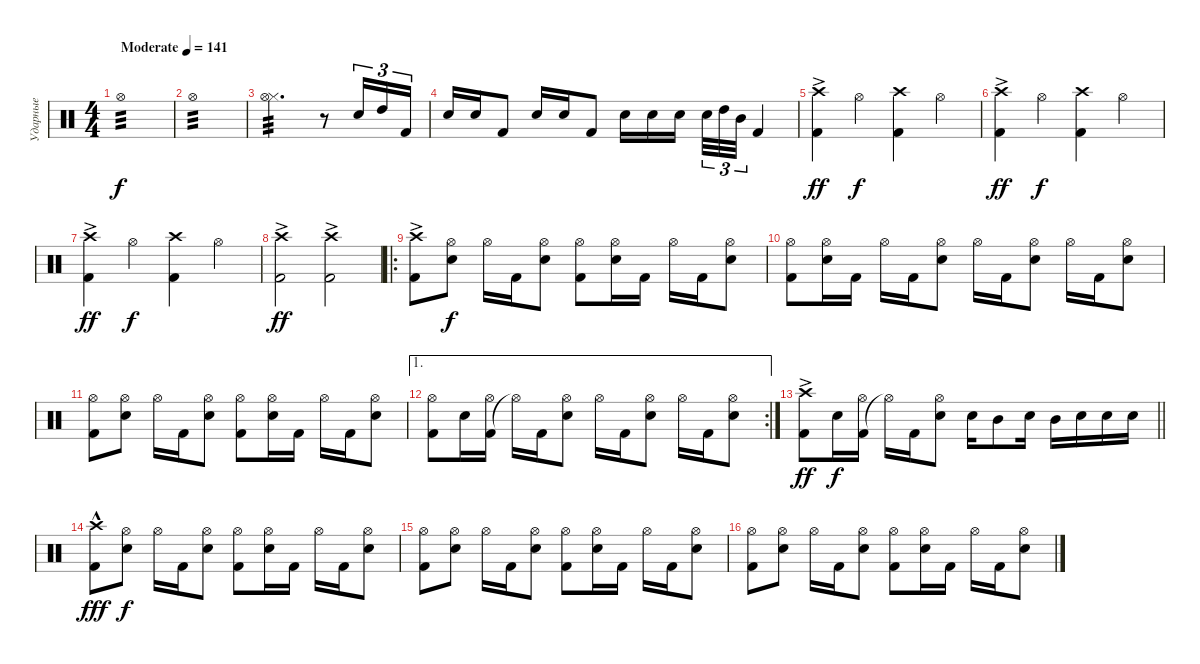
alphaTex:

\track ("Ударные" "Ударные") {instrument percussion}
\staff
\articulation defaults
\ts (4 4)
\tempo (141 "Moderate")
\clef neutral
\ks c "Hi-Hat (open)".1{tp 3 dy f}
|
"Hi-Hat (open)".1{tp 3} |
("Hi-Hat (closed)" "Hi-Hat (open)").2{d tp 3} r.8 "Snare (hit) 2".16{tu (3 2)} "High Tom (hit)".16{tu (3 2)} "Kick (hit) 2".16{tu (3 2)} |
"Snare (hit) 2".16 "Snare (hit) 2".16 "Kick (hit) 2".8 "Snare (hit) 2".16 "Snare (hit) 2".16 "Kick (hit) 2".8 "Snare (hit) 2".16 "Snare (hit) 2".16 "Snare (hit) 2".16{beam splitsecondary} "Snare (hit) 2".32{tu (3 2)} "High Tom (hit)".32{tu (3 2)} "Mid Tom (hit)".32{tu (3 2)} "Kick (hit) 2".4 |
("Kick (hit) 2" "Crash high (hit)"{ac}).4{dy ff} "Hi-Hat (open)".4{dy f} ("Kick (hit) 2" "Crash high (hit)").4 "Hi-Hat (open)".4 |
("Kick (hit) 2" "Crash high (hit)"{ac}).4{dy ff} "Hi-Hat (open)".4{dy f} ("Kick (hit) 2" "Crash high (hit)").4 "Hi-Hat (open)".4 |
("Kick (hit) 2" "Crash high (hit)"{ac}).4{dy ff} "Hi-Hat (open)".4{dy f} ("Kick (hit) 2" "Crash high (hit)").4 "Hi-Hat (open)".4 |
("Kick (hit) 2" "Crash high (hit)"{ac}).2{dy ff} ("Kick (hit) 2" "Crash high (hit)"{ac}).2 |
\ro
("Kick (hit) 2" "Crash high (hit)"{ac}).8 ("Snare (hit) 2" "Hi-Hat (open)").8{dy f} "Hi-Hat (open)".16 "Kick (hit) 2".16 ("Snare (hit) 2" "Hi-Hat (open)").8 ("Kick (hit) 2" "Hi-Hat (open)").8 ("Snare (hit) 2" "Hi-Hat (open)").16 "Kick (hit) 2".16 "Hi-Hat (open)".16 "Kick (hit) 2".16 ("Snare (hit) 2" "Hi-Hat (open)").8 |
("Kick (hit) 2" "Hi-Hat (open)").8 ("Snare (hit) 2" "Hi-Hat (open)").16 "Kick (hit) 2".16 "Hi-Hat (open)".16 "Kick (hit) 2".16 ("Snare (hit) 2" "Hi-Hat (open)").8 "Hi-Hat (open)".16 "Kick (hit) 2".16 ("Snare (hit) 2" "Hi-Hat (open)").8 "Hi-Hat (open)".16 "Kick (hit) 2".16 ("Snare (hit) 2" "Hi-Hat (open)").8 |
("Kick (hit) 2" "Hi-Hat (open)").8 ("Snare (hit) 2" "Hi-Hat (open)").8 "Hi-Hat (open)".16 "Kick (hit) 2".16 ("Snare (hit) 2" "Hi-Hat (open)").8 ("Kick (hit) 2" "Hi-Hat (open)").8 ("Snare (hit) 2" "Hi-Hat (open)").16 "Kick (hit) 2".16 "Hi-Hat (open)".16 "Kick (hit) 2".16 ("Snare (hit) 2" "Hi-Hat (open)").8 |
\ae 1
\rc 2
("Kick (hit) 2" "Hi-Hat (open)").8 "Snare (hit) 2".16 ("Kick (hit) 2" "Hi-Hat (open)").16 "Hi-Hat (open)"{t}.16 "Kick (hit) 2".16 ("Snare (hit) 2" "Hi-Hat (open)").8 "Hi-Hat (open)".16 "Kick (hit) 2".16 ("Snare (hit) 2" "Hi-Hat (open)").8 "Hi-Hat (open)".16 "Kick (hit) 2".16 ("Snare (hit) 2" "Hi-Hat (open)").8 |
\barLineRight lightlight
("Kick (hit) 2" "Crash high (hit)"{ac}).8{dy ff} "Snare (hit) 2".16{dy f} ("Kick (hit) 2" "Hi-Hat (open)").16 "Hi-Hat (open)"{t}.16 "Kick (hit) 2".16 ("Snare (hit) 2" "Hi-Hat (open)").8 "Snare (hit) 2".16 "Mid Tom (hit)".8 "Snare (hit) 2".16 "Mid Tom (hit)".16 "Snare (hit) 2".16 "Snare (hit) 2".16 "Snare (hit) 2".16 |
("Kick (hit) 2" "Crash high (hit)"{hac}).8{dy fff} ("Snare (hit) 2" "Hi-Hat (open)").8{dy f} "Hi-Hat (open)".16 "Kick (hit) 2".16 ("Snare (hit) 2" "Hi-Hat (open)").8 ("Kick (hit) 2" "Hi-Hat (open)").8 ("Snare (hit) 2" "Hi-Hat (open)").16 "Kick (hit) 2".16 "Hi-Hat (open)".16 "Kick (hit) 2".16 ("Snare (hit) 2" "Hi-Hat (open)").8 |
("Kick (hit) 2" "Hi-Hat (open)").8 ("Snare (hit) 2" "Hi-Hat (open)").8 "Hi-Hat (open)".16 "Kick (hit) 2".16 ("Snare (hit) 2" "Hi-Hat (open)").8 ("Kick (hit) 2" "Hi-Hat (open)").8 ("Snare (hit) 2" "Hi-Hat (open)").16 "Kick (hit) 2".16 "Hi-Hat (open)".16 "Kick (hit) 2".16 ("Snare (hit) 2" "Hi-Hat (open)").8 |
("Kick (hit) 2" "Hi-Hat (open)").8 ("Snare (hit) 2" "Hi-Hat (open)").8 "Hi-Hat (open)".16 "Kick (hit) 2".16 ("Snare (hit) 2" "Hi-Hat (open)").8 ("Kick (hit) 2" "Hi-Hat (open)").8 ("Snare (hit) 2" "Hi-Hat (open)").16 "Kick (hit) 2".16 "Hi-Hat (open)".16 "Kick (hit) 2".16 ("Snare (hit) 2" "Hi-Hat (open)").8
